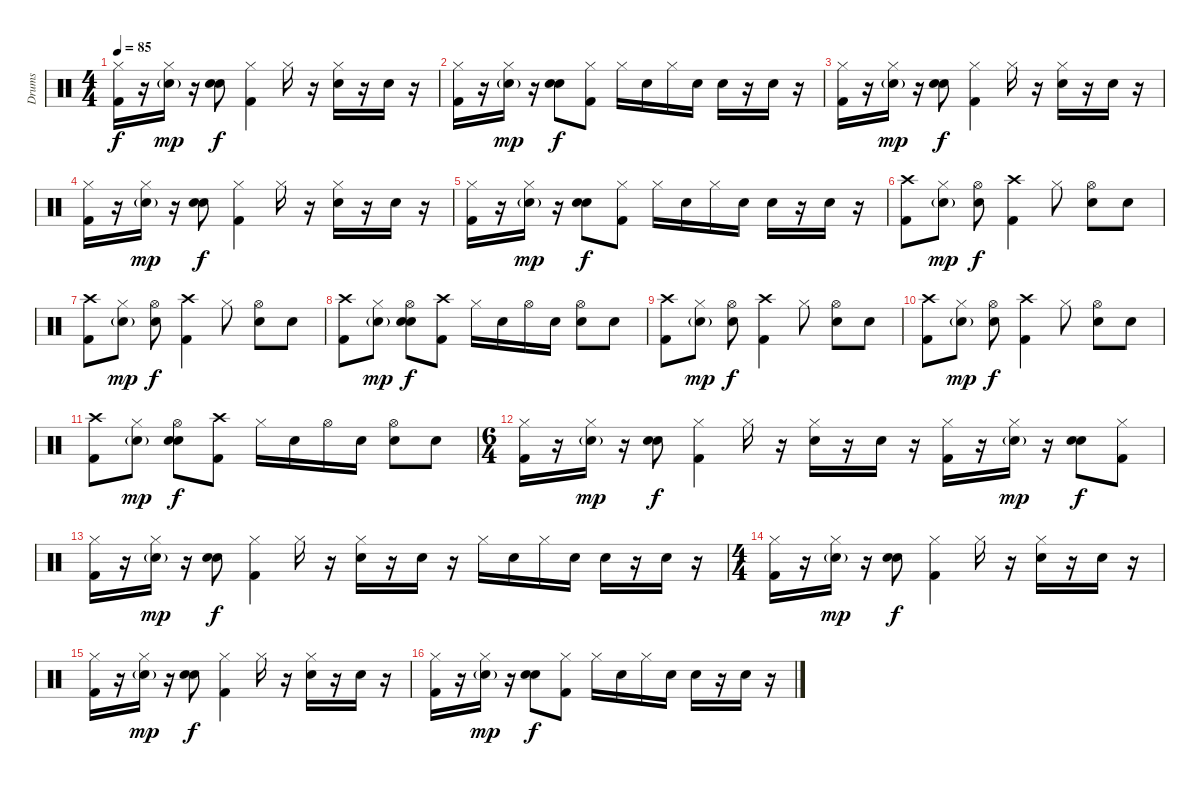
\track ("Drums" "Drums") {instrument percussion}
\staff {score}
\articulation defaults
\ts (4 4)
\tempo 85
\clef neutral
\ks c
("Hi-Hat (closed)" "Kick (hit) 2").16{dy f} r.16 ("Hi-Hat (closed)" "Electric Snare (hit)"{g}).16{dy mp} r.16 ("Electric Snare (hit)" "Snare (hit) 2").8{dy f} ("Hi-Hat (closed)" "Kick (hit) 2").4 "Hi-Hat (closed)".16 r.16 ("Hi-Hat (closed)" "Snare (hit) 2").16 r.16 "Electric Snare (hit)".16 r.16 |
("Hi-Hat (closed)" "Kick (hit) 2").16 r.16 ("Hi-Hat (closed)" "Electric Snare (hit)"{g}).16{dy mp} r.16 ("Electric Snare (hit)" "Snare (hit) 2").8{dy f} ("Hi-Hat (closed)" "Kick (hit) 2").8 "Hi-Hat (closed)".16 "Electric Snare (hit)".16 "Hi-Hat (closed)".16 "Electric Snare (hit)".16 "Snare (hit) 2".16 r.16 "Electric Snare (hit)".16 r.16 |
("Hi-Hat (closed)" "Kick (hit) 2").16 r.16 ("Hi-Hat (closed)" "Electric Snare (hit)"{g}).16{dy mp} r.16 ("Electric Snare (hit)" "Snare (hit) 2").8{dy f} ("Hi-Hat (closed)" "Kick (hit) 2").4 "Hi-Hat (closed)".16 r.16 ("Hi-Hat (closed)" "Snare (hit) 2").16 r.16 "Electric Snare (hit)".16 r.16 |
("Hi-Hat (closed)" "Kick (hit) 2").16 r.16 ("Hi-Hat (closed)" "Electric Snare (hit)"{g}).16{dy mp} r.16 ("Electric Snare (hit)" "Snare (hit) 2").8{dy f} ("Hi-Hat (closed)" "Kick (hit) 2").4 "Hi-Hat (closed)".16 r.16 ("Hi-Hat (closed)" "Snare (hit) 2").16 r.16 "Electric Snare (hit)".16 r.16 |
("Hi-Hat (closed)" "Kick (hit) 2").16 r.16 ("Hi-Hat (closed)" "Electric Snare (hit)"{g}).16{dy mp} r.16 ("Electric Snare (hit)" "Snare (hit) 2").8{dy f} ("Hi-Hat (closed)" "Kick (hit) 2").8 "Hi-Hat (closed)".16 "Electric Snare (hit)".16 "Hi-Hat (closed)".16 "Electric Snare (hit)".16 "Snare (hit) 2".16 r.16 "Electric Snare (hit)".16 r.16 |
("Crash high (hit)" "Kick (hit) 2").8 ("Hi-Hat (closed)" "Electric Snare (hit)"{g}).8{dy mp} ("Hi-Hat (open)" "Electric Snare (hit)").8{dy f} ("Crash high (hit)" "Kick (hit) 2").4 "Hi-Hat (closed)".8 ("Hi-Hat (open)" "Electric Snare (hit)").8 "Electric Snare (hit)".8 |
("Crash high (hit)" "Kick (hit) 2").8 ("Hi-Hat (closed)" "Electric Snare (hit)"{g}).8{dy mp} ("Hi-Hat (open)" "Electric Snare (hit)").8{dy f} ("Crash high (hit)" "Kick (hit) 2").4 "Hi-Hat (closed)".8 ("Hi-Hat (open)" "Electric Snare (hit)").8 "Electric Snare (hit)".8 |
("Crash high (hit)" "Kick (hit) 2").8 ("Hi-Hat (closed)" "Electric Snare (hit)"{g}).8{dy mp} ("Snare (hit) 2" "Hi-Hat (open)" "Electric Snare (hit)").8{dy f} ("Crash high (hit)" "Kick (hit) 2").8 "Hi-Hat (closed)".16 "Electric Snare (hit)".16 "Hi-Hat (open)".16 "Electric Snare (hit)".16 ("Hi-Hat (open)" "Snare (hit) 2").8 "Snare (hit) 2".8 |
("Crash high (hit)" "Kick (hit) 2").8 ("Hi-Hat (closed)" "Electric Snare (hit)"{g}).8{dy mp} ("Hi-Hat (open)" "Electric Snare (hit)").8{dy f} ("Crash high (hit)" "Kick (hit) 2").4 "Hi-Hat (closed)".8 ("Hi-Hat (open)" "Electric Snare (hit)").8 "Electric Snare (hit)".8 |
("Crash high (hit)" "Kick (hit) 2").8 ("Hi-Hat (closed)" "Electric Snare (hit)"{g}).8{dy mp} ("Hi-Hat (open)" "Electric Snare (hit)").8{dy f} ("Crash high (hit)" "Kick (hit) 2").4 "Hi-Hat (closed)".8 ("Hi-Hat (open)" "Electric Snare (hit)").8 "Electric Snare (hit)".8 |
("Crash high (hit)" "Kick (hit) 2").8 ("Hi-Hat (closed)" "Electric Snare (hit)"{g}).8{dy mp} ("Snare (hit) 2" "Hi-Hat (open)" "Electric Snare (hit)").8{dy f} ("Crash high (hit)" "Kick (hit) 2").8 "Hi-Hat (closed)".16 "Electric Snare (hit)".16 "Hi-Hat (open)".16 "Electric Snare (hit)".16 ("Hi-Hat (open)" "Snare (hit) 2").8 "Snare (hit) 2".8 |
\ts (6 4)
("Hi-Hat (closed)" "Kick (hit) 2").16 r.16 ("Hi-Hat (closed)" "Electric Snare (hit)"{g}).16{dy mp} r.16 ("Electric Snare (hit)" "Snare (hit) 2").8{dy f} ("Hi-Hat (closed)" "Kick (hit) 2").4 "Hi-Hat (closed)".16 r.16 ("Hi-Hat (closed)" "Snare (hit) 2").16 r.16 "Electric Snare (hit)".16 r.16 ("Hi-Hat (closed)" "Kick (hit) 2").16 r.16 ("Hi-Hat (closed)" "Electric Snare (hit)"{g}).16{dy mp} r.16 ("Electric Snare (hit)" "Snare (hit) 2").8{dy f} ("Hi-Hat (closed)" "Kick (hit) 2").8 |
("Hi-Hat (closed)" "Kick (hit) 2").16 r.16 ("Hi-Hat (closed)" "Electric Snare (hit)"{g}).16{dy mp} r.16 ("Electric Snare (hit)" "Snare (hit) 2").8{dy f} ("Hi-Hat (closed)" "Kick (hit) 2").4 "Hi-Hat (closed)".16 r.16 ("Hi-Hat (closed)" "Snare (hit) 2").16 r.16 "Electric Snare (hit)".16 r.16 "Hi-Hat (closed)".16 "Electric Snare (hit)".16 "Hi-Hat (closed)".16 "Electric Snare (hit)".16 "Snare (hit) 2".16 r.16 "Electric Snare (hit)".16 r.16 |
\ts (4 4)
("Hi-Hat (closed)" "Kick (hit) 2").16 r.16 ("Hi-Hat (closed)" "Electric Snare (hit)"{g}).16{dy mp} r.16 ("Electric Snare (hit)" "Snare (hit) 2").8{dy f} ("Hi-Hat (closed)" "Kick (hit) 2").4 "Hi-Hat (closed)".16 r.16 ("Hi-Hat (closed)" "Snare (hit) 2").16 r.16 "Electric Snare (hit)".16 r.16 |
("Hi-Hat (closed)" "Kick (hit) 2").16 r.16 ("Hi-Hat (closed)" "Electric Snare (hit)"{g}).16{dy mp} r.16 ("Electric Snare (hit)" "Snare (hit) 2").8{dy f} ("Hi-Hat (closed)" "Kick (hit) 2").4 "Hi-Hat (closed)".16 r.16 ("Hi-Hat (closed)" "Snare (hit) 2").16 r.16 "Electric Snare (hit)".16 r.16 |
("Hi-Hat (closed)" "Kick (hit) 2").16 r.16 ("Hi-Hat (closed)" "Electric Snare (hit)"{g}).16{dy mp} r.16 ("Electric Snare (hit)" "Snare (hit) 2").8{dy f} ("Hi-Hat (closed)" "Kick (hit) 2").8 "Hi-Hat (closed)".16 "Electric Snare (hit)".16 "Hi-Hat (closed)".16 "Electric Snare (hit)".16 "Snare (hit) 2".16 r.16 "Electric Snare (hit)".16 r.16
